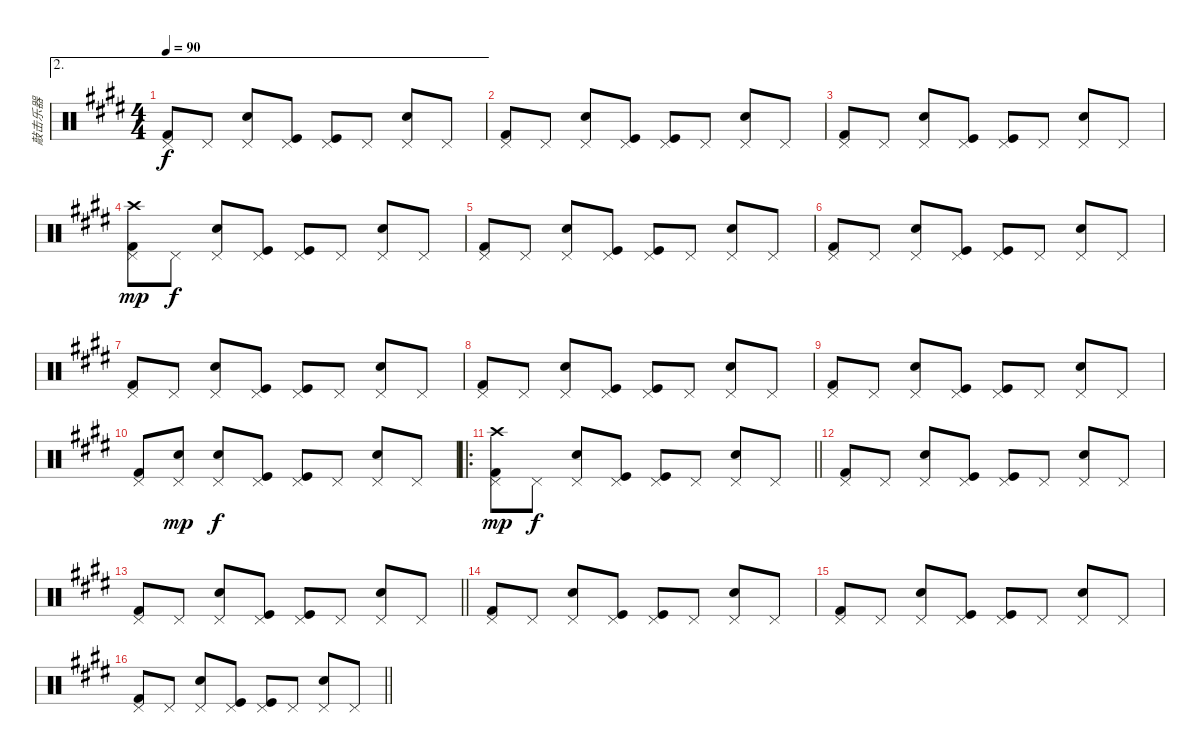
\track ("敲击乐器" "敲击乐器") {solo instrument percussion}
\staff {score}
\articulation defaults
\ae 2
\ts (4 4)
\tempo 90
\clef neutral
\ks e
("Kick (hit) 2" "Pedal Hi-Hat (hit)").8{dy f} "Pedal Hi-Hat (hit)".8 ("Pedal Hi-Hat (hit)" "Snare (hit) 2").8 ("Pedal Hi-Hat (hit)" "Kick (hit)").8 ("Kick (hit)" "Pedal Hi-Hat (hit)").8 "Pedal Hi-Hat (hit)".8 ("Snare (hit) 2" "Pedal Hi-Hat (hit)").8 "Pedal Hi-Hat (hit)".8 |
("Kick (hit) 2" "Pedal Hi-Hat (hit)").8 "Pedal Hi-Hat (hit)".8 ("Pedal Hi-Hat (hit)" "Snare (hit) 2").8 ("Pedal Hi-Hat (hit)" "Kick (hit)").8 ("Kick (hit)" "Pedal Hi-Hat (hit)").8 "Pedal Hi-Hat (hit)".8 ("Snare (hit) 2" "Pedal Hi-Hat (hit)").8 "Pedal Hi-Hat (hit)".8 |
("Kick (hit) 2" "Pedal Hi-Hat (hit)").8 "Pedal Hi-Hat (hit)".8 ("Pedal Hi-Hat (hit)" "Snare (hit) 2").8 ("Pedal Hi-Hat (hit)" "Kick (hit)").8 ("Kick (hit)" "Pedal Hi-Hat (hit)").8 "Pedal Hi-Hat (hit)".8 ("Snare (hit) 2" "Pedal Hi-Hat (hit)").8 "Pedal Hi-Hat (hit)".8 |
("Kick (hit) 2" "Pedal Hi-Hat (hit)" "Crash high (hit)").8{dy mp} "Pedal Hi-Hat (hit)".8{dy f} ("Pedal Hi-Hat (hit)" "Snare (hit) 2").8 ("Pedal Hi-Hat (hit)" "Kick (hit)").8 ("Kick (hit)" "Pedal Hi-Hat (hit)").8 "Pedal Hi-Hat (hit)".8 ("Snare (hit) 2" "Pedal Hi-Hat (hit)").8 "Pedal Hi-Hat (hit)".8 |
("Kick (hit) 2" "Pedal Hi-Hat (hit)").8 "Pedal Hi-Hat (hit)".8 ("Pedal Hi-Hat (hit)" "Snare (hit) 2").8 ("Pedal Hi-Hat (hit)" "Kick (hit)").8 ("Kick (hit)" "Pedal Hi-Hat (hit)").8 "Pedal Hi-Hat (hit)".8 ("Snare (hit) 2" "Pedal Hi-Hat (hit)").8 "Pedal Hi-Hat (hit)".8 |
("Kick (hit) 2" "Pedal Hi-Hat (hit)").8 "Pedal Hi-Hat (hit)".8 ("Pedal Hi-Hat (hit)" "Snare (hit) 2").8 ("Pedal Hi-Hat (hit)" "Kick (hit)").8 ("Kick (hit)" "Pedal Hi-Hat (hit)").8 "Pedal Hi-Hat (hit)".8 ("Snare (hit) 2" "Pedal Hi-Hat (hit)").8 "Pedal Hi-Hat (hit)".8 |
("Kick (hit) 2" "Pedal Hi-Hat (hit)").8 "Pedal Hi-Hat (hit)".8 ("Pedal Hi-Hat (hit)" "Snare (hit) 2").8 ("Pedal Hi-Hat (hit)" "Kick (hit)").8 ("Kick (hit)" "Pedal Hi-Hat (hit)").8 "Pedal Hi-Hat (hit)".8 ("Snare (hit) 2" "Pedal Hi-Hat (hit)").8 "Pedal Hi-Hat (hit)".8 |
("Kick (hit) 2" "Pedal Hi-Hat (hit)").8 "Pedal Hi-Hat (hit)".8 ("Pedal Hi-Hat (hit)" "Snare (hit) 2").8 ("Pedal Hi-Hat (hit)" "Kick (hit)").8 ("Kick (hit)" "Pedal Hi-Hat (hit)").8 "Pedal Hi-Hat (hit)".8 ("Snare (hit) 2" "Pedal Hi-Hat (hit)").8 "Pedal Hi-Hat (hit)".8 |
("Kick (hit) 2" "Pedal Hi-Hat (hit)").8 "Pedal Hi-Hat (hit)".8 ("Pedal Hi-Hat (hit)" "Snare (hit) 2").8 ("Pedal Hi-Hat (hit)" "Kick (hit)").8 ("Kick (hit)" "Pedal Hi-Hat (hit)").8 "Pedal Hi-Hat (hit)".8 ("Snare (hit) 2" "Pedal Hi-Hat (hit)").8 "Pedal Hi-Hat (hit)".8 |
("Kick (hit) 2" "Pedal Hi-Hat (hit)").8 ("Snare (hit) 2" "Pedal Hi-Hat (hit)").8{dy mp} ("Pedal Hi-Hat (hit)" "Snare (hit) 2").8{dy f} ("Pedal Hi-Hat (hit)" "Kick (hit)").8 ("Kick (hit)" "Pedal Hi-Hat (hit)").8 "Pedal Hi-Hat (hit)".8 ("Snare (hit) 2" "Pedal Hi-Hat (hit)").8 "Pedal Hi-Hat (hit)".8 |
\ro
\barLineRight lightlight
("Kick (hit) 2" "Pedal Hi-Hat (hit)" "Crash high (hit)").8{dy mp} "Pedal Hi-Hat (hit)".8{dy f} ("Pedal Hi-Hat (hit)" "Snare (hit) 2").8 ("Pedal Hi-Hat (hit)" "Kick (hit)").8 ("Kick (hit)" "Pedal Hi-Hat (hit)").8 "Pedal Hi-Hat (hit)".8 ("Snare (hit) 2" "Pedal Hi-Hat (hit)").8 "Pedal Hi-Hat (hit)".8 |
("Kick (hit) 2" "Pedal Hi-Hat (hit)").8 "Pedal Hi-Hat (hit)".8 ("Pedal Hi-Hat (hit)" "Snare (hit) 2").8 ("Pedal Hi-Hat (hit)" "Kick (hit)").8 ("Kick (hit)" "Pedal Hi-Hat (hit)").8 "Pedal Hi-Hat (hit)".8 ("Snare (hit) 2" "Pedal Hi-Hat (hit)").8 "Pedal Hi-Hat (hit)".8 |
\barLineRight lightlight
("Kick (hit) 2" "Pedal Hi-Hat (hit)").8 "Pedal Hi-Hat (hit)".8 ("Pedal Hi-Hat (hit)" "Snare (hit) 2").8 ("Pedal Hi-Hat (hit)" "Kick (hit)").8 ("Kick (hit)" "Pedal Hi-Hat (hit)").8 "Pedal Hi-Hat (hit)".8 ("Snare (hit) 2" "Pedal Hi-Hat (hit)").8 "Pedal Hi-Hat (hit)".8 |
("Kick (hit) 2" "Pedal Hi-Hat (hit)").8 "Pedal Hi-Hat (hit)".8 ("Pedal Hi-Hat (hit)" "Snare (hit) 2").8 ("Pedal Hi-Hat (hit)" "Kick (hit)").8 ("Kick (hit)" "Pedal Hi-Hat (hit)").8 "Pedal Hi-Hat (hit)".8 ("Snare (hit) 2" "Pedal Hi-Hat (hit)").8 "Pedal Hi-Hat (hit)".8 |
("Kick (hit) 2" "Pedal Hi-Hat (hit)").8 "Pedal Hi-Hat (hit)".8 ("Pedal Hi-Hat (hit)" "Snare (hit) 2").8 ("Pedal Hi-Hat (hit)" "Kick (hit)").8 ("Kick (hit)" "Pedal Hi-Hat (hit)").8 "Pedal Hi-Hat (hit)".8 ("Snare (hit) 2" "Pedal Hi-Hat (hit)").8 "Pedal Hi-Hat (hit)".8 |
\barLineRight lightlight
("Kick (hit) 2" "Pedal Hi-Hat (hit)").8 "Pedal Hi-Hat (hit)".8 ("Pedal Hi-Hat (hit)" "Snare (hit) 2").8 ("Pedal Hi-Hat (hit)" "Kick (hit)").8 ("Kick (hit)" "Pedal Hi-Hat (hit)").8 "Pedal Hi-Hat (hit)".8 ("Snare (hit) 2" "Pedal Hi-Hat (hit)").8 "Pedal Hi-Hat (hit)".8
